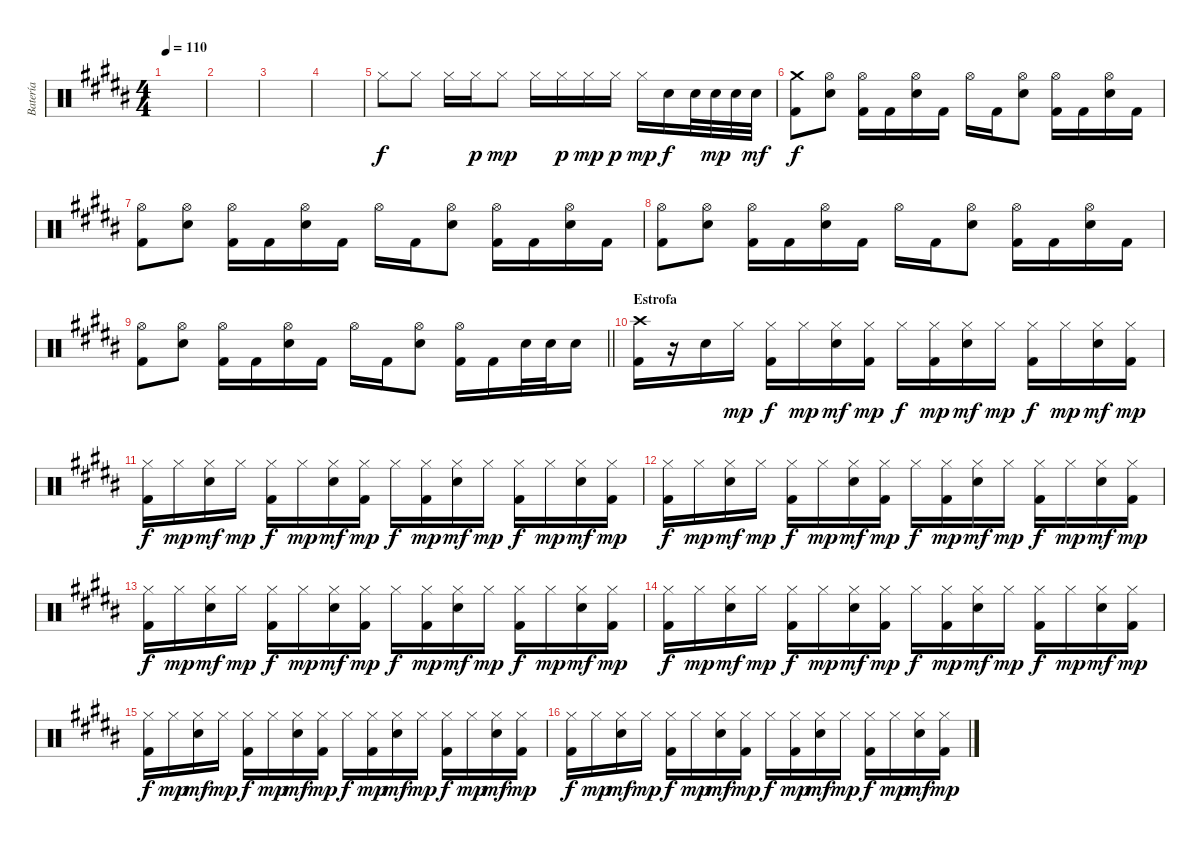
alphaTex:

\track ("Batería" "Batería") {instrument percussion}
\staff {score}
\articulation defaults
\ts (4 4)
\tempo 110
\clef neutral
\ks b
|
|
|
|
"Hi-Hat (closed)".8 "Hi-Hat (closed)".8 "Hi-Hat (closed)".16 "Hi-Hat (closed)".16{dy p} "Hi-Hat (closed)".8{dy mp} "Hi-Hat (closed)".16 "Hi-Hat (closed)".16{dy p} "Hi-Hat (closed)".16{dy mp} "Hi-Hat (closed)".16{dy p} "Hi-Hat (closed)".16{dy mp} "Electric Snare (hit)".16{dy f} "Electric Snare (hit)".32 "Electric Snare (hit)".32{dy mp} "Electric Snare (hit)".32 "Electric Snare (hit)".32{dy mf} |
("Crash medium (hit)" "Kick (hit) 2").8{dy f} ("Hi-Hat (open)" "Electric Snare (hit)").8 ("Hi-Hat (open)" "Kick (hit) 2").16 "Kick (hit) 2".16 ("Hi-Hat (open)" "Electric Snare (hit)").16 "Kick (hit) 2".16 "Hi-Hat (open)".16 "Kick (hit) 2".16 ("Hi-Hat (open)" "Electric Snare (hit)").8 ("Hi-Hat (open)" "Kick (hit) 2").16 "Kick (hit) 2".16 ("Hi-Hat (open)" "Electric Snare (hit)").16 "Kick (hit) 2".16 |
("Hi-Hat (open)" "Kick (hit) 2").8 ("Hi-Hat (open)" "Electric Snare (hit)").8 ("Hi-Hat (open)" "Kick (hit) 2").16 "Kick (hit) 2".16 ("Hi-Hat (open)" "Electric Snare (hit)").16 "Kick (hit) 2".16 "Hi-Hat (open)".16 "Kick (hit) 2".16 ("Hi-Hat (open)" "Electric Snare (hit)").8 ("Hi-Hat (open)" "Kick (hit) 2").16 "Kick (hit) 2".16 ("Hi-Hat (open)" "Electric Snare (hit)").16 "Kick (hit) 2".16 |
("Hi-Hat (open)" "Kick (hit) 2").8 ("Hi-Hat (open)" "Electric Snare (hit)").8 ("Hi-Hat (open)" "Kick (hit) 2").16 "Kick (hit) 2".16 ("Hi-Hat (open)" "Electric Snare (hit)").16 "Kick (hit) 2".16 "Hi-Hat (open)".16 "Kick (hit) 2".16 ("Hi-Hat (open)" "Electric Snare (hit)").8 ("Hi-Hat (open)" "Kick (hit) 2").16 "Kick (hit) 2".16 ("Hi-Hat (open)" "Electric Snare (hit)").16 "Kick (hit) 2".16 |
\barLineRight lightlight
("Hi-Hat (open)" "Kick (hit) 2").8 ("Hi-Hat (open)" "Electric Snare (hit)").8 ("Hi-Hat (open)" "Kick (hit) 2").16 "Kick (hit) 2".16 ("Hi-Hat (open)" "Electric Snare (hit)").16 "Kick (hit) 2".16 "Hi-Hat (open)".16 "Kick (hit) 2".16 ("Hi-Hat (open)" "Electric Snare (hit)").8 ("Hi-Hat (open)" "Kick (hit) 2").16 "Kick (hit) 2".16 "Electric Snare (hit)".32 "Electric Snare (hit)".32 "Electric Snare (hit)".16 |
\section ("" "Estrofa")
("Crash high (hit)" "Kick (hit) 2").16 r.16 "Electric Snare (hit)".16 "Hi-Hat (closed)".16{dy mp} ("Hi-Hat (closed)" "Kick (hit) 2").16{dy f} "Hi-Hat (closed)".16{dy mp} ("Hi-Hat (closed)" "Electric Snare (hit)").16{dy mf} ("Hi-Hat (closed)" "Kick (hit) 2").16{dy mp} "Hi-Hat (closed)".16{dy f} ("Hi-Hat (closed)" "Kick (hit) 2").16{dy mp} ("Hi-Hat (closed)" "Electric Snare (hit)").16{dy mf} "Hi-Hat (closed)".16{dy mp} ("Hi-Hat (closed)" "Kick (hit) 2").16{dy f} "Hi-Hat (closed)".16{dy mp} ("Hi-Hat (closed)" "Electric Snare (hit)").16{dy mf} ("Hi-Hat (closed)" "Kick (hit) 2").16{dy mp} |
("Hi-Hat (closed)" "Kick (hit) 2").16{dy f} "Hi-Hat (closed)".16{dy mp} ("Hi-Hat (closed)" "Electric Snare (hit)").16{dy mf} "Hi-Hat (closed)".16{dy mp} ("Hi-Hat (closed)" "Kick (hit) 2").16{dy f} "Hi-Hat (closed)".16{dy mp} ("Hi-Hat (closed)" "Electric Snare (hit)").16{dy mf} ("Hi-Hat (closed)" "Kick (hit) 2").16{dy mp} "Hi-Hat (closed)".16{dy f} ("Hi-Hat (closed)" "Kick (hit) 2").16{dy mp} ("Hi-Hat (closed)" "Electric Snare (hit)").16{dy mf} "Hi-Hat (closed)".16{dy mp} ("Hi-Hat (closed)" "Kick (hit) 2").16{dy f} "Hi-Hat (closed)".16{dy mp} ("Hi-Hat (closed)" "Electric Snare (hit)").16{dy mf} ("Hi-Hat (closed)" "Kick (hit) 2").16{dy mp} |
("Hi-Hat (closed)" "Kick (hit) 2").16{dy f} "Hi-Hat (closed)".16{dy mp} ("Hi-Hat (closed)" "Electric Snare (hit)").16{dy mf} "Hi-Hat (closed)".16{dy mp} ("Hi-Hat (closed)" "Kick (hit) 2").16{dy f} "Hi-Hat (closed)".16{dy mp} ("Hi-Hat (closed)" "Electric Snare (hit)").16{dy mf} ("Hi-Hat (closed)" "Kick (hit) 2").16{dy mp} "Hi-Hat (closed)".16{dy f} ("Hi-Hat (closed)" "Kick (hit) 2").16{dy mp} ("Hi-Hat (closed)" "Electric Snare (hit)").16{dy mf} "Hi-Hat (closed)".16{dy mp} ("Hi-Hat (closed)" "Kick (hit) 2").16{dy f} "Hi-Hat (closed)".16{dy mp} ("Hi-Hat (closed)" "Electric Snare (hit)").16{dy mf} ("Hi-Hat (closed)" "Kick (hit) 2").16{dy mp} |
("Hi-Hat (closed)" "Kick (hit) 2").16{dy f} "Hi-Hat (closed)".16{dy mp} ("Hi-Hat (closed)" "Electric Snare (hit)").16{dy mf} "Hi-Hat (closed)".16{dy mp} ("Hi-Hat (closed)" "Kick (hit) 2").16{dy f} "Hi-Hat (closed)".16{dy mp} ("Hi-Hat (closed)" "Electric Snare (hit)").16{dy mf} ("Hi-Hat (closed)" "Kick (hit) 2").16{dy mp} "Hi-Hat (closed)".16{dy f} ("Hi-Hat (closed)" "Kick (hit) 2").16{dy mp} ("Hi-Hat (closed)" "Electric Snare (hit)").16{dy mf} "Hi-Hat (closed)".16{dy mp} ("Hi-Hat (closed)" "Kick (hit) 2").16{dy f} "Hi-Hat (closed)".16{dy mp} ("Hi-Hat (closed)" "Electric Snare (hit)").16{dy mf} ("Hi-Hat (closed)" "Kick (hit) 2").16{dy mp} |
("Hi-Hat (closed)" "Kick (hit) 2").16{dy f} "Hi-Hat (closed)".16{dy mp} ("Hi-Hat (closed)" "Electric Snare (hit)").16{dy mf} "Hi-Hat (closed)".16{dy mp} ("Hi-Hat (closed)" "Kick (hit) 2").16{dy f} "Hi-Hat (closed)".16{dy mp} ("Hi-Hat (closed)" "Electric Snare (hit)").16{dy mf} ("Hi-Hat (closed)" "Kick (hit) 2").16{dy mp} "Hi-Hat (closed)".16{dy f} ("Hi-Hat (closed)" "Kick (hit) 2").16{dy mp} ("Hi-Hat (closed)" "Electric Snare (hit)").16{dy mf} "Hi-Hat (closed)".16{dy mp} ("Hi-Hat (closed)" "Kick (hit) 2").16{dy f} "Hi-Hat (closed)".16{dy mp} ("Hi-Hat (closed)" "Electric Snare (hit)").16{dy mf} ("Hi-Hat (closed)" "Kick (hit) 2").16{dy mp} |
("Hi-Hat (closed)" "Kick (hit) 2").16{dy f} "Hi-Hat (closed)".16{dy mp} ("Hi-Hat (closed)" "Electric Snare (hit)").16{dy mf} "Hi-Hat (closed)".16{dy mp} ("Hi-Hat (closed)" "Kick (hit) 2").16{dy f} "Hi-Hat (closed)".16{dy mp} ("Hi-Hat (closed)" "Electric Snare (hit)").16{dy mf} ("Hi-Hat (closed)" "Kick (hit) 2").16{dy mp} "Hi-Hat (closed)".16{dy f} ("Hi-Hat (closed)" "Kick (hit) 2").16{dy mp} ("Hi-Hat (closed)" "Electric Snare (hit)").16{dy mf} "Hi-Hat (closed)".16{dy mp} ("Hi-Hat (closed)" "Kick (hit) 2").16{dy f} "Hi-Hat (closed)".16{dy mp} ("Hi-Hat (closed)" "Electric Snare (hit)").16{dy mf} ("Hi-Hat (closed)" "Kick (hit) 2").16{dy mp} |
("Hi-Hat (closed)" "Kick (hit) 2").16{dy f} "Hi-Hat (closed)".16{dy mp} ("Hi-Hat (closed)" "Electric Snare (hit)").16{dy mf} "Hi-Hat (closed)".16{dy mp} ("Hi-Hat (closed)" "Kick (hit) 2").16{dy f} "Hi-Hat (closed)".16{dy mp} ("Hi-Hat (closed)" "Electric Snare (hit)").16{dy mf} ("Hi-Hat (closed)" "Kick (hit) 2").16{dy mp} "Hi-Hat (closed)".16{dy f} ("Hi-Hat (closed)" "Kick (hit) 2").16{dy mp} ("Hi-Hat (closed)" "Electric Snare (hit)").16{dy mf} "Hi-Hat (closed)".16{dy mp} ("Hi-Hat (closed)" "Kick (hit) 2").16{dy f} "Hi-Hat (closed)".16{dy mp} ("Hi-Hat (closed)" "Electric Snare (hit)").16{dy mf} ("Hi-Hat (closed)" "Kick (hit) 2").16{dy mp}
